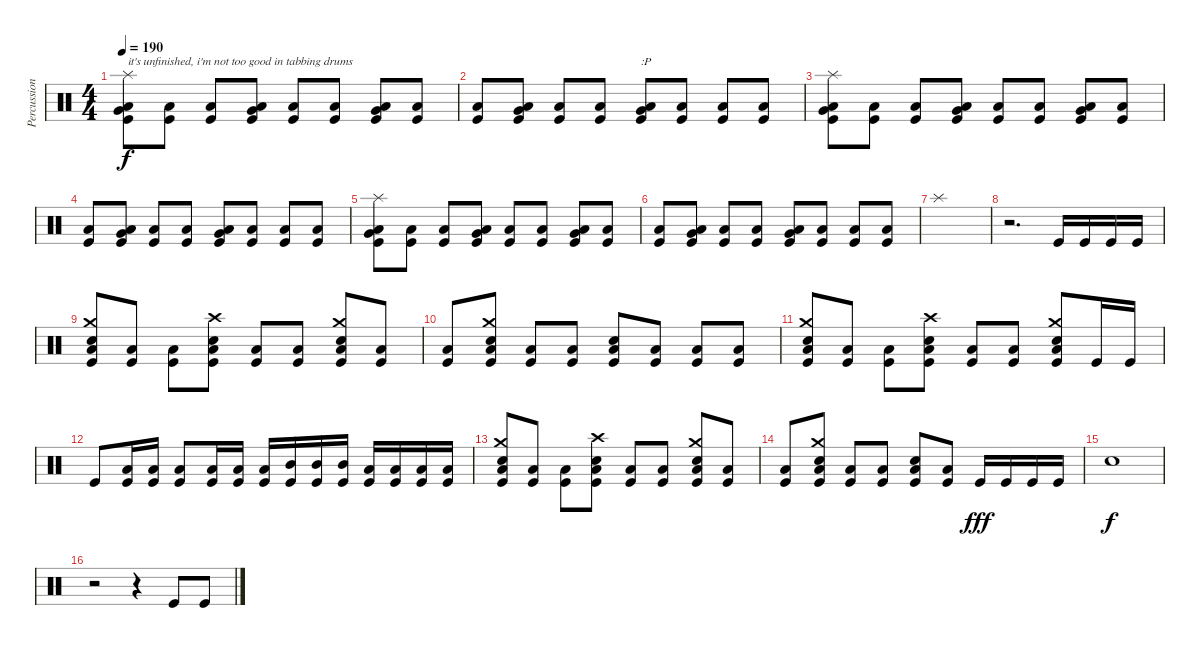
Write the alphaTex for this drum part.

\track ("Percussion" "Percussion") {instrument percussion}
\staff {score}
\articulation defaults
\ts (4 4)
\tempo 190
\clef neutral
\ks c
("Splash (hit)" "Very Low Tom (hit)" "Low Tom (hit)" "Kick (hit)").8{txt "it's unfinished, i'm not too good in tabbing drums" dy f} ("Low Tom (hit)" "Kick (hit)").8 ("Low Tom (hit)" "Kick (hit)").8 ("Very Low Tom (hit)" "Low Tom (hit)" "Kick (hit)").8 ("Low Tom (hit)" "Kick (hit)").8 ("Low Tom (hit)" "Kick (hit)").8 ("Very Low Tom (hit)" "Low Tom (hit)" "Kick (hit)").8 ("Low Tom (hit)" "Kick (hit)").8 |
("Low Tom (hit)" "Kick (hit)").8 ("Very Low Tom (hit)" "Low Tom (hit)" "Kick (hit)").8 ("Low Tom (hit)" "Kick (hit)").8 ("Low Tom (hit)" "Kick (hit)").8 ("Very Low Tom (hit)" "Low Tom (hit)" "Kick (hit)").8{txt ":P"} ("Low Tom (hit)" "Kick (hit)").8 ("Low Tom (hit)" "Kick (hit)").8 ("Low Tom (hit)" "Kick (hit)").8 |
("Splash (hit)" "Very Low Tom (hit)" "Low Tom (hit)" "Kick (hit)").8 ("Low Tom (hit)" "Kick (hit)").8 ("Low Tom (hit)" "Kick (hit)").8 ("Very Low Tom (hit)" "Low Tom (hit)" "Kick (hit)").8 ("Low Tom (hit)" "Kick (hit)").8 ("Low Tom (hit)" "Kick (hit)").8 ("Very Low Tom (hit)" "Low Tom (hit)" "Kick (hit)").8 ("Low Tom (hit)" "Kick (hit)").8 |
("Low Tom (hit)" "Kick (hit)").8 ("Very Low Tom (hit)" "Low Tom (hit)" "Kick (hit)").8 ("Low Tom (hit)" "Kick (hit)").8 ("Low Tom (hit)" "Kick (hit)").8 ("Very Low Tom (hit)" "Low Tom (hit)" "Kick (hit)").8 ("Low Tom (hit)" "Kick (hit)").8 ("Low Tom (hit)" "Kick (hit)").8 ("Low Tom (hit)" "Kick (hit)").8 |
("Splash (hit)" "Very Low Tom (hit)" "Low Tom (hit)" "Kick (hit)").8 ("Low Tom (hit)" "Kick (hit)").8 ("Low Tom (hit)" "Kick (hit)").8 ("Very Low Tom (hit)" "Low Tom (hit)" "Kick (hit)").8 ("Low Tom (hit)" "Kick (hit)").8 ("Low Tom (hit)" "Kick (hit)").8 ("Very Low Tom (hit)" "Low Tom (hit)" "Kick (hit)").8 ("Low Tom (hit)" "Kick (hit)").8 |
("Low Tom (hit)" "Kick (hit)").8 ("Very Low Tom (hit)" "Low Tom (hit)" "Kick (hit)").8 ("Low Tom (hit)" "Kick (hit)").8 ("Low Tom (hit)" "Kick (hit)").8 ("Very Low Tom (hit)" "Low Tom (hit)" "Kick (hit)").8 ("Low Tom (hit)" "Kick (hit)").8 ("Low Tom (hit)" "Kick (hit)").8 ("Low Tom (hit)" "Kick (hit)").8 |
"Splash (hit)".1 |
r.2{d} "Kick (hit)".16 "Kick (hit)".16 "Kick (hit)".16 "Kick (hit)".16 |
("Crash medium (hit)" "Electric Snare (hit)" "Low Tom (hit)" "Kick (hit)").8 ("Low Tom (hit)" "Kick (hit)").8 ("Low Tom (hit)" "Kick (hit)").8 ("Crash high (hit)" "Electric Snare (hit)" "Low Tom (hit)" "Kick (hit)").8 ("Low Tom (hit)" "Kick (hit)").8 ("Low Tom (hit)" "Kick (hit)").8 ("Crash medium (hit)" "Electric Snare (hit)" "Low Tom (hit)" "Kick (hit)").8 ("Low Tom (hit)" "Kick (hit)").8 |
("Low Tom (hit)" "Kick (hit)").8 ("Crash medium (hit)" "Electric Snare (hit)" "Low Tom (hit)" "Kick (hit)").8 ("Low Tom (hit)" "Kick (hit)").8 ("Low Tom (hit)" "Kick (hit)").8 ("Electric Snare (hit)" "Low Tom (hit)" "Kick (hit)").8 ("Low Tom (hit)" "Kick (hit)").8 ("Low Tom (hit)" "Kick (hit)").8 ("Low Tom (hit)" "Kick (hit)").8 |
("Crash medium (hit)" "Electric Snare (hit)" "Low Tom (hit)" "Kick (hit)").8 ("Low Tom (hit)" "Kick (hit)").8 ("Low Tom (hit)" "Kick (hit)").8 ("Crash high (hit)" "Electric Snare (hit)" "Low Tom (hit)" "Kick (hit)").8 ("Low Tom (hit)" "Kick (hit)").8 ("Low Tom (hit)" "Kick (hit)").8 ("Crash medium (hit)" "Electric Snare (hit)" "Low Tom (hit)" "Kick (hit)").8 "Kick (hit)".16 "Kick (hit)".16 |
"Kick (hit)".8 ("Low Tom (hit)" "Kick (hit)").16 ("Low Tom (hit)" "Kick (hit)").16 ("Low Tom (hit)" "Kick (hit)").8 ("Low Tom (hit)" "Kick (hit)").16 ("Low Tom (hit)" "Kick (hit)").16 ("Low Tom (hit)" "Kick (hit)").16 ("Mid Tom (hit)" "Kick (hit)").16 ("Mid Tom (hit)" "Kick (hit)").16 ("Mid Tom (hit)" "Kick (hit)").16 ("Low Tom (hit)" "Kick (hit)").16 ("Low Tom (hit)" "Kick (hit)").16 ("Low Tom (hit)" "Kick (hit)").16 ("Low Tom (hit)" "Kick (hit)").16 |
("Crash medium (hit)" "Electric Snare (hit)" "Low Tom (hit)" "Kick (hit)").8 ("Low Tom (hit)" "Kick (hit)").8 ("Low Tom (hit)" "Kick (hit)").8 ("Crash high (hit)" "Electric Snare (hit)" "Low Tom (hit)" "Kick (hit)").8 ("Low Tom (hit)" "Kick (hit)").8 ("Low Tom (hit)" "Kick (hit)").8 ("Crash medium (hit)" "Electric Snare (hit)" "Low Tom (hit)" "Kick (hit)").8 ("Low Tom (hit)" "Kick (hit)").8 |
("Low Tom (hit)" "Kick (hit)").8 ("Crash medium (hit)" "Electric Snare (hit)" "Low Tom (hit)" "Kick (hit)").8 ("Low Tom (hit)" "Kick (hit)").8 ("Low Tom (hit)" "Kick (hit)").8 ("Electric Snare (hit)" "Low Tom (hit)" "Kick (hit)").8 ("Low Tom (hit)" "Kick (hit)").8 "Kick (hit)".16{dy fff} "Kick (hit)".16 "Kick (hit)".16 "Kick (hit)".16 |
"Electric Snare (hit)".1{dy f} |
r.2 r.4 "Kick (hit)".8 "Kick (hit)".8
